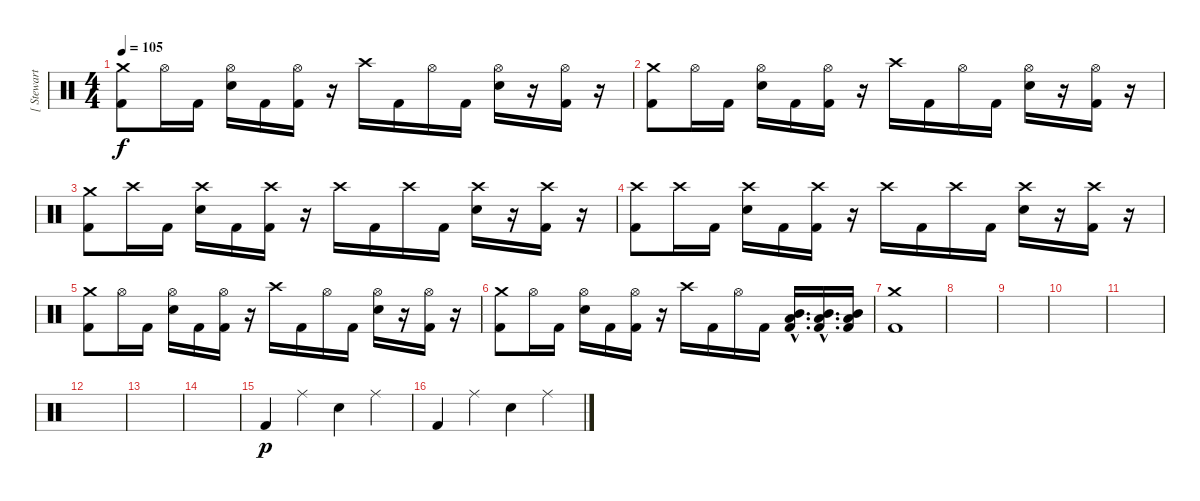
\track ("[ Stewart ]" "[ Stewart ") {instrument percussion}
\staff {score}
\articulation defaults
\ts (4 4)
\tempo 105
\clef neutral
\ks c
("Kick (hit) 2" "Crash medium (hit)").8{dy f} "Hi-Hat (open)".16 "Kick (hit) 2".16 ("Electric Snare (hit)" "Hi-Hat (open)").16 "Kick (hit) 2".16 ("Kick (hit) 2" "Hi-Hat (open)").16 r.16 "Crash high (hit)".16 "Kick (hit) 2".16 "Hi-Hat (open)".16 "Kick (hit) 2".16 ("Electric Snare (hit)" "Hi-Hat (open)").16 r.16 ("Kick (hit) 2" "Hi-Hat (open)").16 r.16 |
("Kick (hit) 2" "Crash medium (hit)").8 "Hi-Hat (open)".16 "Kick (hit) 2".16 ("Electric Snare (hit)" "Hi-Hat (open)").16 "Kick (hit) 2".16 ("Kick (hit) 2" "Hi-Hat (open)").16 r.16 "Crash high (hit)".16 "Kick (hit) 2".16 "Hi-Hat (open)".16 "Kick (hit) 2".16 ("Electric Snare (hit)" "Hi-Hat (open)").16 r.16 ("Kick (hit) 2" "Hi-Hat (open)").16 r.16 |
("Kick (hit) 2" "Crash medium (hit)").8 "Crash high (hit)".16 "Kick (hit) 2".16 ("Electric Snare (hit)" "Crash high (hit)").16 "Kick (hit) 2".16 ("Kick (hit) 2" "Crash high (hit)").16 r.16 "Crash high (hit)".16 "Kick (hit) 2".16 "Crash high (hit)".16 "Kick (hit) 2".16 ("Electric Snare (hit)" "Crash high (hit)").16 r.16 ("Kick (hit) 2" "Crash high (hit)").16 r.16 |
("Kick (hit) 2" "Crash high (hit)").8 "Crash high (hit)".16 "Kick (hit) 2".16 ("Electric Snare (hit)" "Crash high (hit)").16 "Kick (hit) 2".16 ("Kick (hit) 2" "Crash high (hit)").16 r.16 "Crash high (hit)".16 "Kick (hit) 2".16 "Crash high (hit)".16 "Kick (hit) 2".16 ("Electric Snare (hit)" "Crash high (hit)").16 r.16 ("Kick (hit) 2" "Crash high (hit)").16 r.16 |
("Kick (hit) 2" "Crash medium (hit)").8 "Hi-Hat (open)".16 "Kick (hit) 2".16 ("Electric Snare (hit)" "Hi-Hat (open)").16 "Kick (hit) 2".16 ("Kick (hit) 2" "Hi-Hat (open)").16 r.16 "Crash high (hit)".16 "Kick (hit) 2".16 "Hi-Hat (open)".16 "Kick (hit) 2".16 ("Electric Snare (hit)" "Hi-Hat (open)").16 r.16 ("Kick (hit) 2" "Hi-Hat (open)").16 r.16 |
("Kick (hit) 2" "Crash medium (hit)").8 "Hi-Hat (open)".16 "Kick (hit) 2".16 ("Electric Snare (hit)" "Hi-Hat (open)").16 "Kick (hit) 2".16 ("Kick (hit) 2" "Hi-Hat (open)").16 r.16 "Crash high (hit)".16 "Kick (hit) 2".16 "Hi-Hat (open)".16 "Kick (hit) 2".16 ("Mid Tom (hit)"{hac} "Low Tom (hit)"{hac} "Kick (hit) 2"{hac}).16{d} ("Mid Tom (hit)"{hac} "Low Tom (hit)"{hac} "Kick (hit) 2"{hac}).16{d} ("Mid Tom (hit)" "Low Tom (hit)" "Kick (hit) 2").16 |
("Kick (hit) 2" "Crash medium (hit)").1 |
|
|
|
|
|
|
|
"Kick (hit) 2".4{dy p} "Ride (middle)".4 "Electric Snare (hit)".4 "Ride (middle)".4 |
"Kick (hit) 2".4 "Ride (middle)".4 "Electric Snare (hit)".4 "Ride (middle)".4
